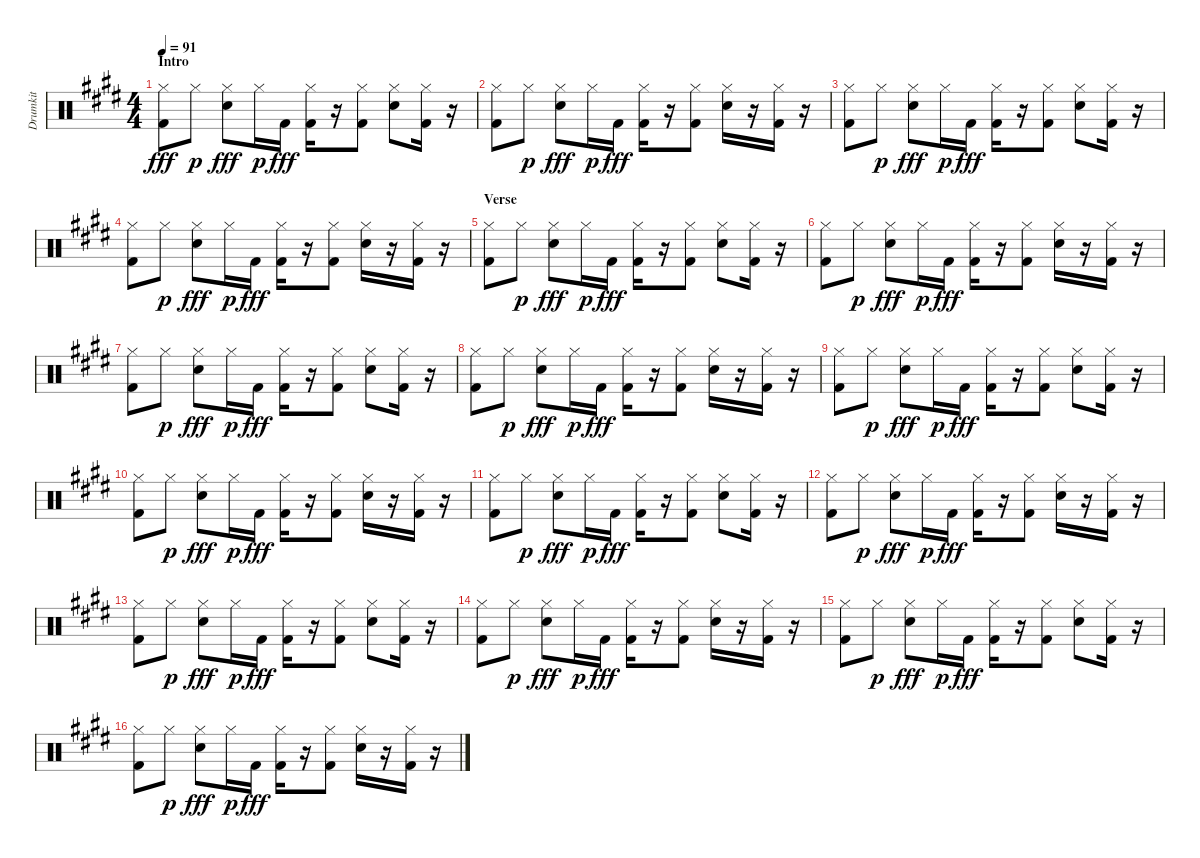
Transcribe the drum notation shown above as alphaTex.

\track ("Drumkit" "Drumkit") {instrument percussion}
\staff {score}
\articulation defaults
\ts (4 4)
\section ("" "Intro")
\tempo 91
\clef neutral
\ks e
("Kick (hit) 2" "Hi-Hat (closed)").8{dy fff} "Hi-Hat (closed)".8{dy p} ("Snare (hit) 2" "Hi-Hat (closed)").8{dy fff} "Hi-Hat (closed)".16{dy p} "Kick (hit) 2".16{dy fff} ("Kick (hit) 2" "Hi-Hat (closed)").16 r.16 ("Kick (hit) 2" "Hi-Hat (closed)").8 ("Snare (hit) 2" "Hi-Hat (closed)").8 ("Kick (hit) 2" "Hi-Hat (closed)").16 r.16 |
("Kick (hit) 2" "Hi-Hat (closed)").8 "Hi-Hat (closed)".8{dy p} ("Snare (hit) 2" "Hi-Hat (closed)").8{dy fff} "Hi-Hat (closed)".16{dy p} "Kick (hit) 2".16{dy fff} ("Kick (hit) 2" "Hi-Hat (closed)").16 r.16 ("Kick (hit) 2" "Hi-Hat (closed)").8 ("Snare (hit) 2" "Hi-Hat (closed)").16 r.16 ("Kick (hit) 2" "Hi-Hat (closed)").16 r.16 |
("Kick (hit) 2" "Hi-Hat (closed)").8 "Hi-Hat (closed)".8{dy p} ("Snare (hit) 2" "Hi-Hat (closed)").8{dy fff} "Hi-Hat (closed)".16{dy p} "Kick (hit) 2".16{dy fff} ("Kick (hit) 2" "Hi-Hat (closed)").16 r.16 ("Kick (hit) 2" "Hi-Hat (closed)").8 ("Snare (hit) 2" "Hi-Hat (closed)").8 ("Kick (hit) 2" "Hi-Hat (closed)").16 r.16 |
("Kick (hit) 2" "Hi-Hat (closed)").8 "Hi-Hat (closed)".8{dy p} ("Snare (hit) 2" "Hi-Hat (closed)").8{dy fff} "Hi-Hat (closed)".16{dy p} "Kick (hit) 2".16{dy fff} ("Kick (hit) 2" "Hi-Hat (closed)").16 r.16 ("Kick (hit) 2" "Hi-Hat (closed)").8 ("Snare (hit) 2" "Hi-Hat (closed)").16 r.16 ("Kick (hit) 2" "Hi-Hat (closed)").16 r.16 |
\section ("" "Verse")
("Kick (hit) 2" "Hi-Hat (closed)").8 "Hi-Hat (closed)".8{dy p} ("Snare (hit) 2" "Hi-Hat (closed)").8{dy fff} "Hi-Hat (closed)".16{dy p} "Kick (hit) 2".16{dy fff} ("Kick (hit) 2" "Hi-Hat (closed)").16 r.16 ("Kick (hit) 2" "Hi-Hat (closed)").8 ("Snare (hit) 2" "Hi-Hat (closed)").8 ("Kick (hit) 2" "Hi-Hat (closed)").16 r.16 |
("Kick (hit) 2" "Hi-Hat (closed)").8 "Hi-Hat (closed)".8{dy p} ("Snare (hit) 2" "Hi-Hat (closed)").8{dy fff} "Hi-Hat (closed)".16{dy p} "Kick (hit) 2".16{dy fff} ("Kick (hit) 2" "Hi-Hat (closed)").16 r.16 ("Kick (hit) 2" "Hi-Hat (closed)").8 ("Snare (hit) 2" "Hi-Hat (closed)").16 r.16 ("Kick (hit) 2" "Hi-Hat (closed)").16 r.16 |
("Kick (hit) 2" "Hi-Hat (closed)").8 "Hi-Hat (closed)".8{dy p} ("Snare (hit) 2" "Hi-Hat (closed)").8{dy fff} "Hi-Hat (closed)".16{dy p} "Kick (hit) 2".16{dy fff} ("Kick (hit) 2" "Hi-Hat (closed)").16 r.16 ("Kick (hit) 2" "Hi-Hat (closed)").8 ("Snare (hit) 2" "Hi-Hat (closed)").8 ("Kick (hit) 2" "Hi-Hat (closed)").16 r.16 |
("Kick (hit) 2" "Hi-Hat (closed)").8 "Hi-Hat (closed)".8{dy p} ("Snare (hit) 2" "Hi-Hat (closed)").8{dy fff} "Hi-Hat (closed)".16{dy p} "Kick (hit) 2".16{dy fff} ("Kick (hit) 2" "Hi-Hat (closed)").16 r.16 ("Kick (hit) 2" "Hi-Hat (closed)").8 ("Snare (hit) 2" "Hi-Hat (closed)").16 r.16 ("Kick (hit) 2" "Hi-Hat (closed)").16 r.16 |
("Kick (hit) 2" "Hi-Hat (closed)").8 "Hi-Hat (closed)".8{dy p} ("Snare (hit) 2" "Hi-Hat (closed)").8{dy fff} "Hi-Hat (closed)".16{dy p} "Kick (hit) 2".16{dy fff} ("Kick (hit) 2" "Hi-Hat (closed)").16 r.16 ("Kick (hit) 2" "Hi-Hat (closed)").8 ("Snare (hit) 2" "Hi-Hat (closed)").8 ("Kick (hit) 2" "Hi-Hat (closed)").16 r.16 |
("Kick (hit) 2" "Hi-Hat (closed)").8 "Hi-Hat (closed)".8{dy p} ("Snare (hit) 2" "Hi-Hat (closed)").8{dy fff} "Hi-Hat (closed)".16{dy p} "Kick (hit) 2".16{dy fff} ("Kick (hit) 2" "Hi-Hat (closed)").16 r.16 ("Kick (hit) 2" "Hi-Hat (closed)").8 ("Snare (hit) 2" "Hi-Hat (closed)").16 r.16 ("Kick (hit) 2" "Hi-Hat (closed)").16 r.16 |
("Kick (hit) 2" "Hi-Hat (closed)").8 "Hi-Hat (closed)".8{dy p} ("Snare (hit) 2" "Hi-Hat (closed)").8{dy fff} "Hi-Hat (closed)".16{dy p} "Kick (hit) 2".16{dy fff} ("Kick (hit) 2" "Hi-Hat (closed)").16 r.16 ("Kick (hit) 2" "Hi-Hat (closed)").8 ("Snare (hit) 2" "Hi-Hat (closed)").8 ("Kick (hit) 2" "Hi-Hat (closed)").16 r.16 |
("Kick (hit) 2" "Hi-Hat (closed)").8 "Hi-Hat (closed)".8{dy p} ("Snare (hit) 2" "Hi-Hat (closed)").8{dy fff} "Hi-Hat (closed)".16{dy p} "Kick (hit) 2".16{dy fff} ("Kick (hit) 2" "Hi-Hat (closed)").16 r.16 ("Kick (hit) 2" "Hi-Hat (closed)").8 ("Snare (hit) 2" "Hi-Hat (closed)").16 r.16 ("Kick (hit) 2" "Hi-Hat (closed)").16 r.16 |
("Kick (hit) 2" "Hi-Hat (closed)").8 "Hi-Hat (closed)".8{dy p} ("Snare (hit) 2" "Hi-Hat (closed)").8{dy fff} "Hi-Hat (closed)".16{dy p} "Kick (hit) 2".16{dy fff} ("Kick (hit) 2" "Hi-Hat (closed)").16 r.16 ("Kick (hit) 2" "Hi-Hat (closed)").8 ("Snare (hit) 2" "Hi-Hat (closed)").8 ("Kick (hit) 2" "Hi-Hat (closed)").16 r.16 |
("Kick (hit) 2" "Hi-Hat (closed)").8 "Hi-Hat (closed)".8{dy p} ("Snare (hit) 2" "Hi-Hat (closed)").8{dy fff} "Hi-Hat (closed)".16{dy p} "Kick (hit) 2".16{dy fff} ("Kick (hit) 2" "Hi-Hat (closed)").16 r.16 ("Kick (hit) 2" "Hi-Hat (closed)").8 ("Snare (hit) 2" "Hi-Hat (closed)").16 r.16 ("Kick (hit) 2" "Hi-Hat (closed)").16 r.16 |
("Kick (hit) 2" "Hi-Hat (closed)").8 "Hi-Hat (closed)".8{dy p} ("Snare (hit) 2" "Hi-Hat (closed)").8{dy fff} "Hi-Hat (closed)".16{dy p} "Kick (hit) 2".16{dy fff} ("Kick (hit) 2" "Hi-Hat (closed)").16 r.16 ("Kick (hit) 2" "Hi-Hat (closed)").8 ("Snare (hit) 2" "Hi-Hat (closed)").8 ("Kick (hit) 2" "Hi-Hat (closed)").16 r.16 |
("Kick (hit) 2" "Hi-Hat (closed)").8 "Hi-Hat (closed)".8{dy p} ("Snare (hit) 2" "Hi-Hat (closed)").8{dy fff} "Hi-Hat (closed)".16{dy p} "Kick (hit) 2".16{dy fff} ("Kick (hit) 2" "Hi-Hat (closed)").16 r.16 ("Kick (hit) 2" "Hi-Hat (closed)").8 ("Snare (hit) 2" "Hi-Hat (closed)").16 r.16 ("Kick (hit) 2" "Hi-Hat (closed)").16 r.16
